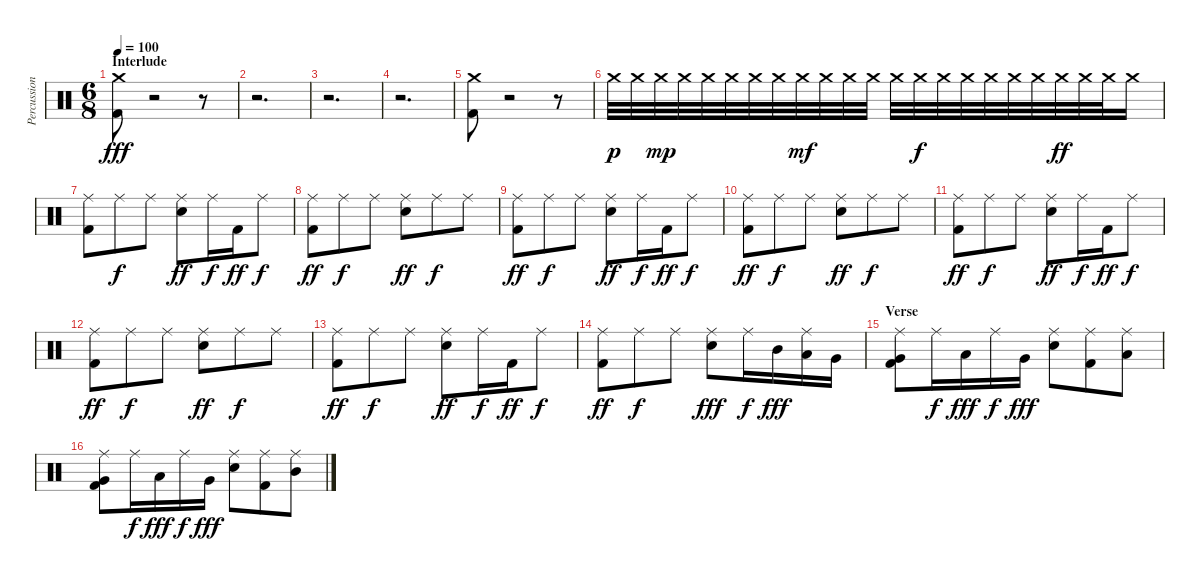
\track ("Percussion" "Percussion") {instrument percussion}
\staff {score}
\articulation defaults
\ts (6 8)
\section ("" "Interlude")
\tempo 100
\clef neutral
\ks c
("Kick (hit) 2" "Crash medium (hit)").8{dy fff} r.2 r.8 |
r.2{d} |
r.2{d} |
r.2{d} |
("Crash medium (hit)" "Kick (hit) 2").8 r.2 r.8 |
"Crash medium (hit)".32{dy p} "Crash medium (hit)".32 "Crash medium (hit)".32{dy mp} "Crash medium (hit)".32 "Crash medium (hit)".32 "Crash medium (hit)".32 "Crash medium (hit)".32 "Crash medium (hit)".32 "Crash medium (hit)".32{dy mf} "Crash medium (hit)".32 "Crash medium (hit)".32 "Crash medium (hit)".32 "Crash medium (hit)".32 "Crash medium (hit)".32{dy f} "Crash medium (hit)".32 "Crash medium (hit)".32 "Crash medium (hit)".32 "Crash medium (hit)".32 "Crash medium (hit)".32 "Crash medium (hit)".32{dy ff} "Crash medium (hit)".32 "Crash medium (hit)".32 "Crash medium (hit)".16 |
("Ride (middle)" "Kick (hit) 2").8 "Ride (middle)".8{dy f} "Ride (middle)".8 ("Ride (middle)" "Electric Snare (hit)").8{dy ff} "Ride (middle)".16{dy f} "Kick (hit) 2".16{dy ff} "Ride (middle)".8{dy f} |
("Ride (middle)" "Kick (hit) 2").8{dy ff} "Ride (middle)".8{dy f} "Ride (middle)".8 ("Ride (middle)" "Electric Snare (hit)").8{dy ff} "Ride (middle)".8{dy f} "Ride (middle)".8 |
("Kick (hit) 2" "Ride (middle)").8{dy ff} "Ride (middle)".8{dy f} "Ride (middle)".8 ("Electric Snare (hit)" "Ride (middle)").8{dy ff} "Ride (middle)".16{dy f} "Kick (hit) 2".16{dy ff} "Ride (middle)".8{dy f} |
("Kick (hit) 2" "Ride (middle)").8{dy ff} "Ride (middle)".8{dy f} "Ride (middle)".8 ("Electric Snare (hit)" "Ride (middle)").8{dy ff} "Ride (middle)".8{dy f} "Ride (middle)".8 |
("Kick (hit) 2" "Ride (middle)").8{dy ff} "Ride (middle)".8{dy f} "Ride (middle)".8 ("Electric Snare (hit)" "Ride (middle)").8{dy ff} "Ride (middle)".16{dy f} "Kick (hit) 2".16{dy ff} "Ride (middle)".8{dy f} |
("Kick (hit) 2" "Ride (middle)").8{dy ff} "Ride (middle)".8{dy f} "Ride (middle)".8 ("Electric Snare (hit)" "Ride (middle)").8{dy ff} "Ride (middle)".8{dy f} "Ride (middle)".8 |
("Kick (hit) 2" "Ride (middle)").8{dy ff} "Ride (middle)".8{dy f} "Ride (middle)".8 ("Electric Snare (hit)" "Ride (middle)").8{dy ff} "Ride (middle)".16{dy f} "Kick (hit) 2".16{dy ff} "Ride (middle)".8{dy f} |
("Kick (hit) 2" "Ride (middle)").8{dy ff} "Ride (middle)".8{dy f} "Ride (middle)".8 ("Electric Snare (hit)" "Ride (middle)").8{dy fff} "Ride (middle)".16{dy f} "Mid Tom (hit)".16{dy fff} ("Ride (middle)" "Low Tom (hit)").16 "Very Low Tom (hit)".16 |
\section ("" "Verse")
("Ride (middle)" "Kick (hit) 2" "Very Low Tom (hit)").8 "Ride (middle)".16{dy f} "Low Tom (hit)".16{dy fff} "Ride (middle)".16{dy f} "Very Low Tom (hit)".16{dy fff} ("Ride (middle)" "Electric Snare (hit)").8 ("Ride (middle)" "Kick (hit) 2").8 ("Ride (middle)" "Low Tom (hit)").8 |
("Ride (middle)" "Kick (hit) 2" "Very Low Tom (hit)").8 "Ride (middle)".16{dy f} "Low Tom (hit)".16{dy fff} "Ride (middle)".16{dy f} "Very Low Tom (hit)".16{dy fff} ("Ride (middle)" "Electric Snare (hit)").8 ("Ride (middle)" "Kick (hit) 2").8 ("Ride (middle)" "Mid Tom (hit)").8
